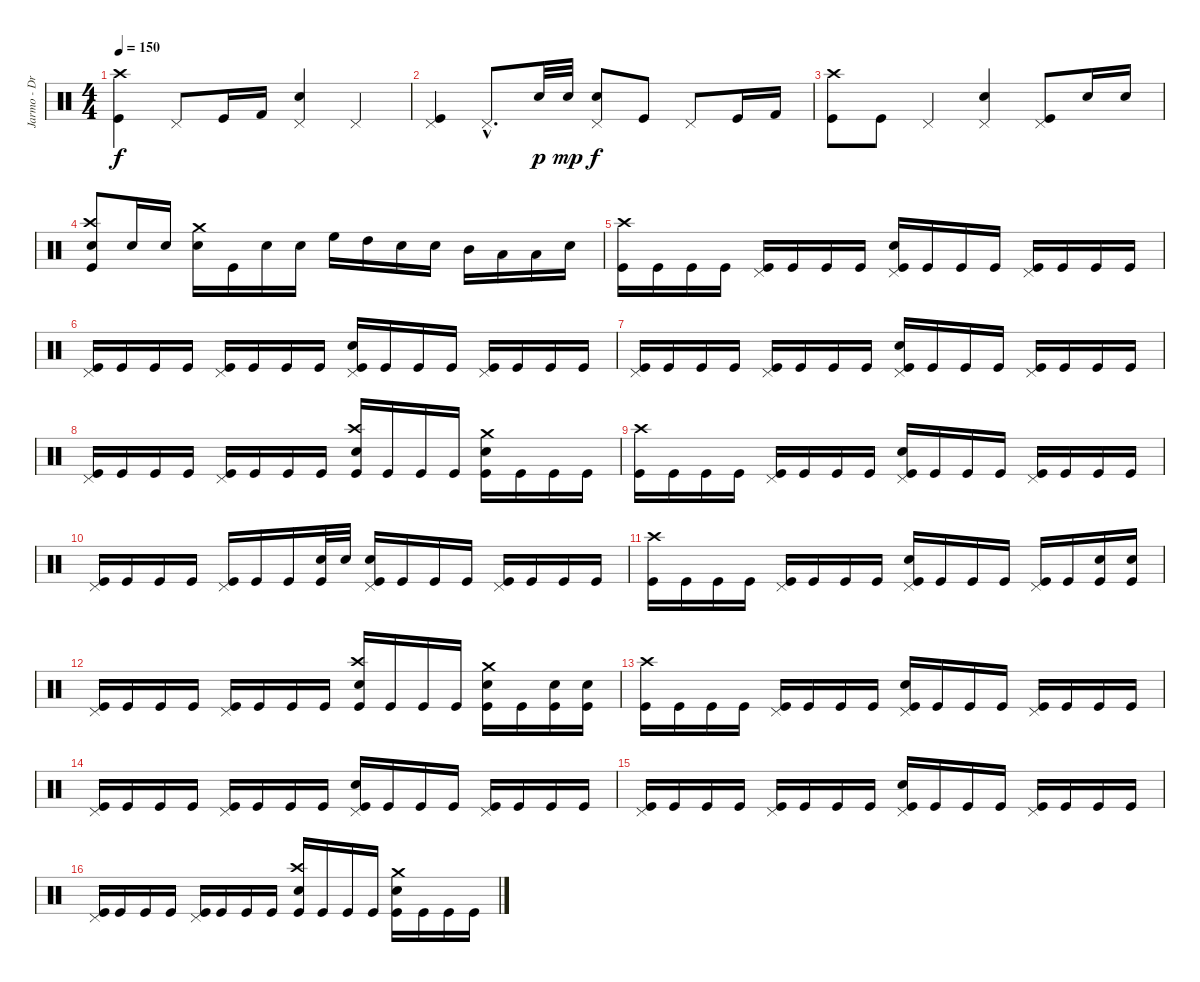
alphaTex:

\track ("Jarmo - Drums/Vodka" "Jarmo - Dr") {instrument percussion}
\staff {score}
\articulation defaults
\ts (4 4)
\tempo 150
\clef neutral
\ks c
("Kick (hit)" "Crash high (hit)").4{dy f} "Pedal Hi-Hat (hit)".8 "Kick (hit)".16 "Kick (hit) 2".16 ("Electric Snare (hit)" "Pedal Hi-Hat (hit)").4 "Pedal Hi-Hat (hit)".4 |
("Kick (hit)" "Pedal Hi-Hat (hit)").4 "Pedal Hi-Hat (hit)"{hac}.8{d} "Electric Snare (hit)".32{dy p} "Electric Snare (hit)".32{dy mp} ("Electric Snare (hit)" "Pedal Hi-Hat (hit)").8{dy f} "Kick (hit)".8 "Pedal Hi-Hat (hit)".8 "Kick (hit)".16 "Kick (hit) 2".16 |
("Kick (hit)" "Crash high (hit)").8 "Kick (hit)".8 "Pedal Hi-Hat (hit)".4 ("Electric Snare (hit)" "Pedal Hi-Hat (hit)").4 ("Kick (hit)" "Pedal Hi-Hat (hit)").8 "Electric Snare (hit)".16 "Electric Snare (hit)".16 |
("Kick (hit)" "Electric Snare (hit)" "Crash high (hit)").8 "Electric Snare (hit)".16 "Electric Snare (hit)".16 ("Electric Snare (hit)" "Crash medium (hit)").16 "Kick (hit)".16 "Electric Snare (hit)".16 "Electric Snare (hit)".16 "High Floor Tom (hit)".16 "High Tom (hit)".16 "Electric Snare (hit)".16 "Electric Snare (hit)".16 "Mid Tom (hit)".16 "Low Tom (hit)".16 "Low Tom (hit)".16 "Electric Snare (hit)".16 |
("Kick (hit)" "Crash high (hit)").16 "Kick (hit)".16 "Kick (hit)".16 "Kick (hit)".16 ("Kick (hit)" "Pedal Hi-Hat (hit)").16 "Kick (hit)".16 "Kick (hit)".16 "Kick (hit)".16 ("Kick (hit)" "Electric Snare (hit)" "Pedal Hi-Hat (hit)").16 "Kick (hit)".16 "Kick (hit)".16 "Kick (hit)".16 ("Kick (hit)" "Pedal Hi-Hat (hit)").16 "Kick (hit)".16 "Kick (hit)".16 "Kick (hit)".16 |
("Kick (hit)" "Pedal Hi-Hat (hit)").16 "Kick (hit)".16 "Kick (hit)".16 "Kick (hit)".16 ("Kick (hit)" "Pedal Hi-Hat (hit)").16 "Kick (hit)".16 "Kick (hit)".16 "Kick (hit)".16 ("Kick (hit)" "Electric Snare (hit)" "Pedal Hi-Hat (hit)").16 "Kick (hit)".16 "Kick (hit)".16 "Kick (hit)".16 ("Kick (hit)" "Pedal Hi-Hat (hit)").16 "Kick (hit)".16 "Kick (hit)".16 "Kick (hit)".16 |
("Kick (hit)" "Pedal Hi-Hat (hit)").16 "Kick (hit)".16 "Kick (hit)".16 "Kick (hit)".16 ("Kick (hit)" "Pedal Hi-Hat (hit)").16 "Kick (hit)".16 "Kick (hit)".16 "Kick (hit)".16 ("Kick (hit)" "Electric Snare (hit)" "Pedal Hi-Hat (hit)").16 "Kick (hit)".16 "Kick (hit)".16 "Kick (hit)".16 ("Kick (hit)" "Pedal Hi-Hat (hit)").16 "Kick (hit)".16 "Kick (hit)".16 "Kick (hit)".16 |
("Kick (hit)" "Pedal Hi-Hat (hit)").16 "Kick (hit)".16 "Kick (hit)".16 "Kick (hit)".16 ("Kick (hit)" "Pedal Hi-Hat (hit)").16 "Kick (hit)".16 "Kick (hit)".16 "Kick (hit)".16 ("Kick (hit)" "Electric Snare (hit)" "Crash high (hit)").16 "Kick (hit)".16 "Kick (hit)".16 "Kick (hit)".16 ("Kick (hit)" "Electric Snare (hit)" "Crash medium (hit)").16 "Kick (hit)".16 "Kick (hit)".16 "Kick (hit)".16 |
("Kick (hit)" "Crash high (hit)").16 "Kick (hit)".16 "Kick (hit)".16 "Kick (hit)".16 ("Kick (hit)" "Pedal Hi-Hat (hit)").16 "Kick (hit)".16 "Kick (hit)".16 "Kick (hit)".16 ("Kick (hit)" "Electric Snare (hit)" "Pedal Hi-Hat (hit)").16 "Kick (hit)".16 "Kick (hit)".16 "Kick (hit)".16 ("Kick (hit)" "Pedal Hi-Hat (hit)").16 "Kick (hit)".16 "Kick (hit)".16 "Kick (hit)".16 |
("Kick (hit)" "Pedal Hi-Hat (hit)").16 "Kick (hit)".16 "Kick (hit)".16 "Kick (hit)".16 ("Kick (hit)" "Pedal Hi-Hat (hit)").16 "Kick (hit)".16 "Kick (hit)".16 ("Kick (hit)" "Electric Snare (hit)").32 "Electric Snare (hit)".32 ("Kick (hit)" "Electric Snare (hit)" "Pedal Hi-Hat (hit)").16 "Kick (hit)".16 "Kick (hit)".16 "Kick (hit)".16 ("Kick (hit)" "Pedal Hi-Hat (hit)").16 "Kick (hit)".16 "Kick (hit)".16 "Kick (hit)".16 |
("Kick (hit)" "Crash high (hit)").16 "Kick (hit)".16 "Kick (hit)".16 "Kick (hit)".16 ("Kick (hit)" "Pedal Hi-Hat (hit)").16 "Kick (hit)".16 "Kick (hit)".16 "Kick (hit)".16 ("Kick (hit)" "Electric Snare (hit)" "Pedal Hi-Hat (hit)").16 "Kick (hit)".16 "Kick (hit)".16 "Kick (hit)".16 ("Kick (hit)" "Pedal Hi-Hat (hit)").16 "Kick (hit)".16 ("Kick (hit)" "Electric Snare (hit)").16 ("Kick (hit)" "Electric Snare (hit)").16 |
("Kick (hit)" "Pedal Hi-Hat (hit)").16 "Kick (hit)".16 "Kick (hit)".16 "Kick (hit)".16 ("Kick (hit)" "Pedal Hi-Hat (hit)").16 "Kick (hit)".16 "Kick (hit)".16 "Kick (hit)".16 ("Kick (hit)" "Electric Snare (hit)" "Crash high (hit)").16 "Kick (hit)".16 "Kick (hit)".16 "Kick (hit)".16 ("Kick (hit)" "Electric Snare (hit)" "Crash medium (hit)").16 "Kick (hit)".16 ("Kick (hit)" "Electric Snare (hit)").16 ("Kick (hit)" "Electric Snare (hit)").16 |
("Kick (hit)" "Crash high (hit)").16 "Kick (hit)".16 "Kick (hit)".16 "Kick (hit)".16 ("Kick (hit)" "Pedal Hi-Hat (hit)").16 "Kick (hit)".16 "Kick (hit)".16 "Kick (hit)".16 ("Kick (hit)" "Electric Snare (hit)" "Pedal Hi-Hat (hit)").16 "Kick (hit)".16 "Kick (hit)".16 "Kick (hit)".16 ("Kick (hit)" "Pedal Hi-Hat (hit)").16 "Kick (hit)".16 "Kick (hit)".16 "Kick (hit)".16 |
("Kick (hit)" "Pedal Hi-Hat (hit)").16 "Kick (hit)".16 "Kick (hit)".16 "Kick (hit)".16 ("Kick (hit)" "Pedal Hi-Hat (hit)").16 "Kick (hit)".16 "Kick (hit)".16 "Kick (hit)".16 ("Kick (hit)" "Electric Snare (hit)" "Pedal Hi-Hat (hit)").16 "Kick (hit)".16 "Kick (hit)".16 "Kick (hit)".16 ("Kick (hit)" "Pedal Hi-Hat (hit)").16 "Kick (hit)".16 "Kick (hit)".16 "Kick (hit)".16 |
("Kick (hit)" "Pedal Hi-Hat (hit)").16 "Kick (hit)".16 "Kick (hit)".16 "Kick (hit)".16 ("Kick (hit)" "Pedal Hi-Hat (hit)").16 "Kick (hit)".16 "Kick (hit)".16 "Kick (hit)".16 ("Kick (hit)" "Electric Snare (hit)" "Pedal Hi-Hat (hit)").16 "Kick (hit)".16 "Kick (hit)".16 "Kick (hit)".16 ("Kick (hit)" "Pedal Hi-Hat (hit)").16 "Kick (hit)".16 "Kick (hit)".16 "Kick (hit)".16 |
("Kick (hit)" "Pedal Hi-Hat (hit)").16 "Kick (hit)".16 "Kick (hit)".16 "Kick (hit)".16 ("Kick (hit)" "Pedal Hi-Hat (hit)").16 "Kick (hit)".16 "Kick (hit)".16 "Kick (hit)".16 ("Kick (hit)" "Electric Snare (hit)" "Crash high (hit)").16 "Kick (hit)".16 "Kick (hit)".16 "Kick (hit)".16 ("Kick (hit)" "Electric Snare (hit)" "Crash medium (hit)").16 "Kick (hit)".16 "Kick (hit)".16 "Kick (hit)".16
